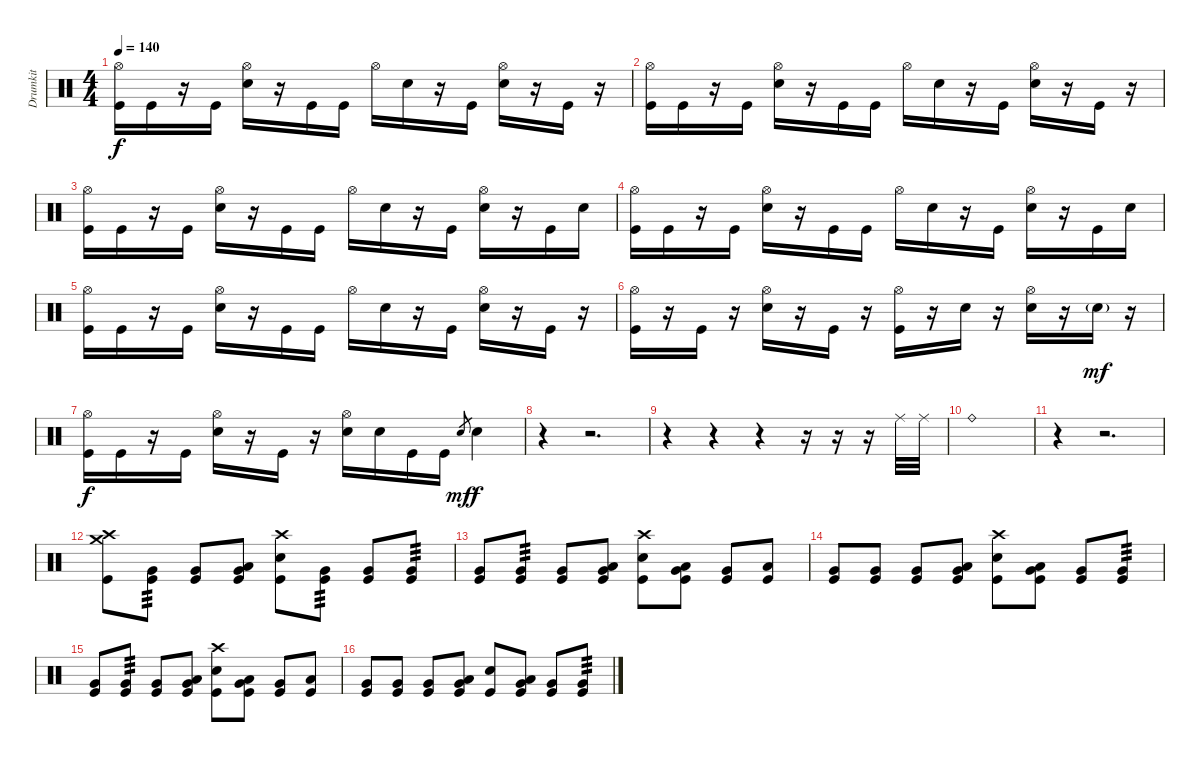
\track ("Drumkit" "Drumkit") {instrument percussion}
\staff {score}
\articulation defaults
\ts (4 4)
\tempo 140
\clef neutral
\ks c
("Hi-Hat (open)" "Kick (hit)").16{dy f} "Kick (hit)".16 r.16 "Kick (hit)".16 ("Hi-Hat (open)" "Snare (hit) 2").16 r.16 "Kick (hit)".16 "Kick (hit)".16 "Hi-Hat (open)".16 "Snare (hit) 2".16 r.16 "Kick (hit)".16 ("Hi-Hat (open)" "Snare (hit) 2").16 r.16 "Kick (hit)".16 r.16 |
("Hi-Hat (open)" "Kick (hit)").16 "Kick (hit)".16 r.16 "Kick (hit)".16 ("Hi-Hat (open)" "Snare (hit) 2").16 r.16 "Kick (hit)".16 "Kick (hit)".16 "Hi-Hat (open)".16 "Snare (hit) 2".16 r.16 "Kick (hit)".16 ("Hi-Hat (open)" "Snare (hit) 2").16 r.16 "Kick (hit)".16 r.16 |
("Hi-Hat (open)" "Kick (hit)").16 "Kick (hit)".16 r.16 "Kick (hit)".16 ("Hi-Hat (open)" "Snare (hit) 2").16 r.16 "Kick (hit)".16 "Kick (hit)".16 "Hi-Hat (open)".16 "Snare (hit) 2".16 r.16 "Kick (hit)".16 ("Hi-Hat (open)" "Snare (hit) 2").16 r.16 "Kick (hit)".16 "Snare (hit) 2".16 |
("Hi-Hat (open)" "Kick (hit)").16 "Kick (hit)".16 r.16 "Kick (hit)".16 ("Hi-Hat (open)" "Snare (hit) 2").16 r.16 "Kick (hit)".16 "Kick (hit)".16 "Hi-Hat (open)".16 "Snare (hit) 2".16 r.16 "Kick (hit)".16 ("Hi-Hat (open)" "Snare (hit) 2").16 r.16 "Kick (hit)".16 "Snare (hit) 2".16 |
("Hi-Hat (open)" "Kick (hit)").16 "Kick (hit)".16 r.16 "Kick (hit)".16 ("Hi-Hat (open)" "Snare (hit) 2").16 r.16 "Kick (hit)".16 "Kick (hit)".16 "Hi-Hat (open)".16 "Snare (hit) 2".16 r.16 "Kick (hit)".16 ("Hi-Hat (open)" "Snare (hit) 2").16 r.16 "Kick (hit)".16 r.16 |
("Hi-Hat (open)" "Kick (hit)").16 r.16 "Kick (hit)".16 r.16 ("Hi-Hat (open)" "Snare (hit) 2").16 r.16 "Kick (hit)".16 r.16 ("Hi-Hat (open)" "Kick (hit)").16 r.16 "Snare (hit) 2".16 r.16 ("Hi-Hat (open)" "Snare (hit) 2").16 r.16 "Snare (hit) 2"{g}.16{dy mf} r.16 |
("Hi-Hat (open)" "Kick (hit)").16{dy f} "Kick (hit)".16 r.16 "Kick (hit)".16 ("Hi-Hat (open)" "Snare (hit) 2").16 r.16 "Kick (hit)".16 r.16 ("Hi-Hat (open)" "Snare (hit) 2").16 "Snare (hit) 2".16 "Kick (hit)".16 "Kick (hit)".16 "Snare (hit)".8{gr dy mf} "Snare (hit) 2".4{dy f} |
r.4 r.2{d} |
r.4 r.4 r.4 r.16 r.16 r.16 "Ride (middle)".32 "Ride (middle)".32 |
"Ride (bell)".1 |
r.4 r.2{d} |
("Crash high (hit)" "Crash medium (hit)" "Kick (hit)").8 ("Very Low Tom (hit)" "Kick (hit)").8{tp 3} ("Very Low Tom (hit)" "Kick (hit)").8 ("Low Tom (hit)" "Very Low Tom (hit)" "Kick (hit)").8 ("Crash high (hit)" "Snare (hit) 2" "Kick (hit)").8 ("Very Low Tom (hit)" "Kick (hit)").8{tp 3} ("Very Low Tom (hit)" "Kick (hit)").8 ("Very Low Tom (hit)" "Kick (hit)").8{tp 3} |
("Very Low Tom (hit)" "Kick (hit)").8 ("Very Low Tom (hit)" "Kick (hit)").8{tp 3} ("Very Low Tom (hit)" "Kick (hit)").8 ("Low Tom (hit)" "Very Low Tom (hit)" "Kick (hit)").8 ("Crash high (hit)" "Snare (hit) 2" "Kick (hit)").8 ("Low Tom (hit)" "Very Low Tom (hit)" "Kick (hit)").8 ("Very Low Tom (hit)" "Kick (hit)").8 ("Low Tom (hit)" "Kick (hit)").8 |
("Very Low Tom (hit)" "Kick (hit)").8 ("Very Low Tom (hit)" "Kick (hit)").8 ("Very Low Tom (hit)" "Kick (hit)").8 ("Low Tom (hit)" "Very Low Tom (hit)" "Kick (hit)").8 ("Crash high (hit)" "Snare (hit) 2" "Kick (hit)").8 ("Low Tom (hit)" "Very Low Tom (hit)" "Kick (hit)").8 ("Very Low Tom (hit)" "Kick (hit)").8 ("Very Low Tom (hit)" "Kick (hit)").8{tp 3} |
("Very Low Tom (hit)" "Kick (hit)").8 ("Very Low Tom (hit)" "Kick (hit)").8{tp 3} ("Very Low Tom (hit)" "Kick (hit)").8 ("Low Tom (hit)" "Very Low Tom (hit)" "Kick (hit)").8 ("Crash high (hit)" "Snare (hit) 2" "Kick (hit)").8 ("Low Tom (hit)" "Very Low Tom (hit)" "Kick (hit)").8 ("Very Low Tom (hit)" "Kick (hit)").8 ("Low Tom (hit)" "Kick (hit)").8 |
("Very Low Tom (hit)" "Kick (hit)").8 ("Very Low Tom (hit)" "Kick (hit)").8 ("Very Low Tom (hit)" "Kick (hit)").8 ("Low Tom (hit)" "Very Low Tom (hit)" "Kick (hit)").8 ("Snare (hit) 2" "Kick (hit)").8 ("Low Tom (hit)" "Very Low Tom (hit)" "Kick (hit)").8 ("Very Low Tom (hit)" "Kick (hit)").8 ("Very Low Tom (hit)" "Kick (hit)").8{tp 3}
